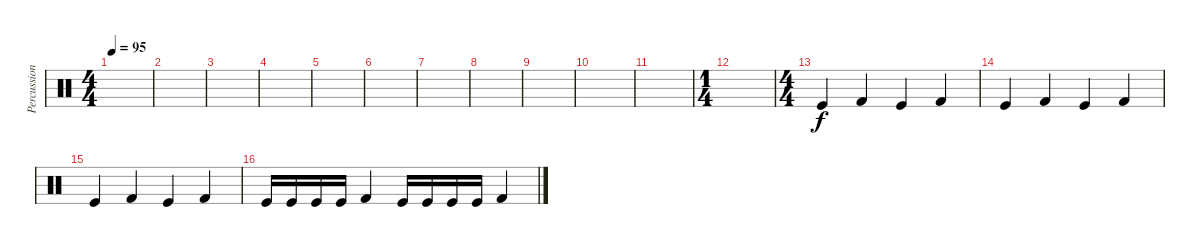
\track ("Percussion" "Percussion") {instrument percussion}
\staff {score}
\articulation defaults
\ts (4 4)
\tempo 95
\clef neutral
\ks c
|
|
|
|
|
|
|
|
|
|
|
\ts (1 4)
|
\ts (4 4)
"Kick (hit)".4 "Kick (hit) 2".4 "Kick (hit)".4 "Kick (hit) 2".4 |
"Kick (hit)".4 "Kick (hit) 2".4 "Kick (hit)".4 "Kick (hit) 2".4 |
"Kick (hit)".4 "Kick (hit) 2".4 "Kick (hit)".4 "Kick (hit) 2".4 |
"Kick (hit)".16 "Kick (hit)".16 "Kick (hit)".16 "Kick (hit)".16 "Kick (hit) 2".4 "Kick (hit)".16 "Kick (hit)".16 "Kick (hit)".16 "Kick (hit)".16 "Kick (hit) 2".4
